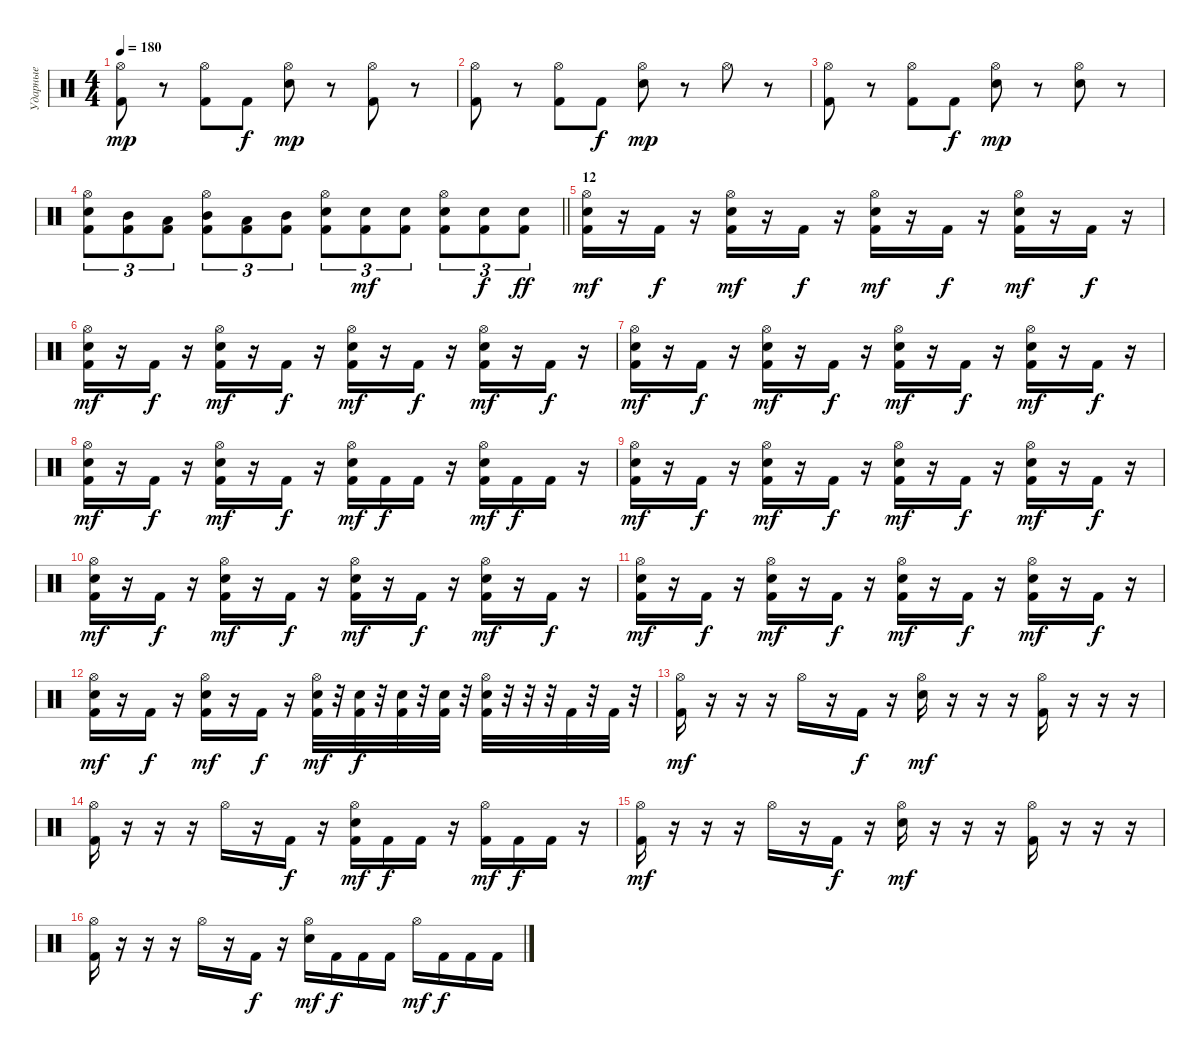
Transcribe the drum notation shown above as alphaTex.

\track ("Ударные" "Ударные") {instrument percussion}
\staff {score}
\articulation defaults
\ts (4 4)
\tempo 180
\clef neutral
\ks c
("Hi-Hat (open)" "Kick (hit) 2").8{dy mp} r.8 ("Hi-Hat (open)" "Kick (hit) 2").8 "Kick (hit) 2".8{dy f} ("Hi-Hat (open)" "Snare (hit) 2").8{dy mp} r.8 ("Hi-Hat (open)" "Kick (hit) 2").8 r.8 |
("Hi-Hat (open)" "Kick (hit) 2").8 r.8 ("Hi-Hat (open)" "Kick (hit) 2").8 "Kick (hit) 2".8{dy f} ("Hi-Hat (open)" "Snare (hit) 2").8{dy mp} r.8 "Hi-Hat (open)".8 r.8 |
("Hi-Hat (open)" "Kick (hit) 2").8 r.8 ("Hi-Hat (open)" "Kick (hit) 2").8 "Kick (hit) 2".8{dy f} ("Hi-Hat (open)" "Snare (hit) 2").8{dy mp} r.8 ("Hi-Hat (open)" "Snare (hit) 2").8 r.8 |
\barLineRight lightlight
("Snare (hit) 2" "Hi-Hat (open)" "Kick (hit) 2").8{tu (3 2)} ("Mid Tom (hit)" "Kick (hit) 2").8{tu (3 2)} ("Low Tom (hit)" "Kick (hit) 2").8{tu (3 2)} ("Hi-Hat (open)" "Mid Tom (hit)" "Kick (hit) 2").8{tu (3 2)} ("Low Tom (hit)" "Kick (hit) 2").8{tu (3 2)} ("Mid Tom (hit)" "Kick (hit) 2").8{tu (3 2)} ("Snare (hit) 2" "Hi-Hat (open)" "Kick (hit) 2").8{tu (3 2)} ("Snare (hit) 2" "Kick (hit) 2").8{tu (3 2) dy mf} ("Snare (hit) 2" "Kick (hit) 2").8{tu (3 2)} ("Hi-Hat (open)" "Snare (hit) 2" "Kick (hit) 2").8{tu (3 2)} ("Snare (hit) 2" "Kick (hit) 2").8{tu (3 2) dy f} ("Snare (hit) 2" "Kick (hit) 2").8{tu (3 2) dy ff} |
\section ("" "12")
("Hi-Hat (open)" "Snare (hit) 2" "Kick (hit) 2").16{dy mf} r.16 "Kick (hit) 2".16{dy f} r.16 ("Hi-Hat (open)" "Snare (hit) 2" "Kick (hit) 2").16{dy mf} r.16 "Kick (hit) 2".16{dy f} r.16 ("Hi-Hat (open)" "Snare (hit) 2" "Kick (hit) 2").16{dy mf} r.16 "Kick (hit) 2".16{dy f} r.16 ("Hi-Hat (open)" "Snare (hit) 2" "Kick (hit) 2").16{dy mf} r.16 "Kick (hit) 2".16{dy f} r.16 |
("Hi-Hat (open)" "Snare (hit) 2" "Kick (hit) 2").16{dy mf} r.16 "Kick (hit) 2".16{dy f} r.16 ("Hi-Hat (open)" "Snare (hit) 2" "Kick (hit) 2").16{dy mf} r.16 "Kick (hit) 2".16{dy f} r.16 ("Hi-Hat (open)" "Snare (hit) 2" "Kick (hit) 2").16{dy mf} r.16 "Kick (hit) 2".16{dy f} r.16 ("Hi-Hat (open)" "Snare (hit) 2" "Kick (hit) 2").16{dy mf} r.16 "Kick (hit) 2".16{dy f} r.16 |
("Hi-Hat (open)" "Snare (hit) 2" "Kick (hit) 2").16{dy mf} r.16 "Kick (hit) 2".16{dy f} r.16 ("Hi-Hat (open)" "Snare (hit) 2" "Kick (hit) 2").16{dy mf} r.16 "Kick (hit) 2".16{dy f} r.16 ("Hi-Hat (open)" "Snare (hit) 2" "Kick (hit) 2").16{dy mf} r.16 "Kick (hit) 2".16{dy f} r.16 ("Hi-Hat (open)" "Snare (hit) 2" "Kick (hit) 2").16{dy mf} r.16 "Kick (hit) 2".16{dy f} r.16 |
("Hi-Hat (open)" "Snare (hit) 2" "Kick (hit) 2").16{dy mf} r.16 "Kick (hit) 2".16{dy f} r.16 ("Hi-Hat (open)" "Snare (hit) 2" "Kick (hit) 2").16{dy mf} r.16 "Kick (hit) 2".16{dy f} r.16 ("Hi-Hat (open)" "Snare (hit) 2" "Kick (hit) 2").16{dy mf} "Kick (hit) 2".16{dy f} "Kick (hit) 2".16 r.16 ("Hi-Hat (open)" "Snare (hit) 2" "Kick (hit) 2").16{dy mf} "Kick (hit) 2".16{dy f} "Kick (hit) 2".16 r.16 |
("Hi-Hat (open)" "Snare (hit) 2" "Kick (hit) 2").16{dy mf} r.16 "Kick (hit) 2".16{dy f} r.16 ("Hi-Hat (open)" "Snare (hit) 2" "Kick (hit) 2").16{dy mf} r.16 "Kick (hit) 2".16{dy f} r.16 ("Hi-Hat (open)" "Snare (hit) 2" "Kick (hit) 2").16{dy mf} r.16 "Kick (hit) 2".16{dy f} r.16 ("Hi-Hat (open)" "Snare (hit) 2" "Kick (hit) 2").16{dy mf} r.16 "Kick (hit) 2".16{dy f} r.16 |
("Hi-Hat (open)" "Snare (hit) 2" "Kick (hit) 2").16{dy mf} r.16 "Kick (hit) 2".16{dy f} r.16 ("Hi-Hat (open)" "Snare (hit) 2" "Kick (hit) 2").16{dy mf} r.16 "Kick (hit) 2".16{dy f} r.16 ("Hi-Hat (open)" "Snare (hit) 2" "Kick (hit) 2").16{dy mf} r.16 "Kick (hit) 2".16{dy f} r.16 ("Hi-Hat (open)" "Snare (hit) 2" "Kick (hit) 2").16{dy mf} r.16 "Kick (hit) 2".16{dy f} r.16 |
("Hi-Hat (open)" "Snare (hit) 2" "Kick (hit) 2").16{dy mf} r.16 "Kick (hit) 2".16{dy f} r.16 ("Hi-Hat (open)" "Snare (hit) 2" "Kick (hit) 2").16{dy mf} r.16 "Kick (hit) 2".16{dy f} r.16 ("Hi-Hat (open)" "Snare (hit) 2" "Kick (hit) 2").16{dy mf} r.16 "Kick (hit) 2".16{dy f} r.16 ("Hi-Hat (open)" "Snare (hit) 2" "Kick (hit) 2").16{dy mf} r.16 "Kick (hit) 2".16{dy f} r.16 |
("Hi-Hat (open)" "Snare (hit) 2" "Kick (hit) 2").16{dy mf} r.16 "Kick (hit) 2".16{dy f} r.16 ("Hi-Hat (open)" "Snare (hit) 2" "Kick (hit) 2").16{dy mf} r.16 "Kick (hit) 2".16{dy f} r.16 ("Hi-Hat (open)" "Snare (hit) 2" "Kick (hit) 2").32{dy mf} r.32 ("Snare (hit) 2" "Kick (hit) 2").32{dy f} r.32 ("Snare (hit) 2" "Kick (hit) 2").32 r.32 ("Snare (hit) 2" "Kick (hit) 2").32 r.32 ("Hi-Hat (open)" "Snare (hit) 2" "Kick (hit) 2").32 r.32 r.32 r.32 "Kick (hit) 2".32 r.32 "Kick (hit) 2".32 r.32 |
("Hi-Hat (open)" "Kick (hit) 2").16{dy mf} r.16 r.16 r.16 "Hi-Hat (open)".16 r.16 "Kick (hit) 2".16{dy f} r.16 ("Hi-Hat (open)" "Snare (hit) 2").16{dy mf} r.16 r.16 r.16 ("Hi-Hat (open)" "Kick (hit) 2").16 r.16 r.16 r.16 |
("Hi-Hat (open)" "Kick (hit) 2").16 r.16 r.16 r.16 "Hi-Hat (open)".16 r.16 "Kick (hit) 2".16{dy f} r.16 ("Hi-Hat (open)" "Snare (hit) 2" "Kick (hit) 2").16{dy mf} "Kick (hit) 2".16{dy f} "Kick (hit) 2".16 r.16 ("Hi-Hat (open)" "Kick (hit) 2").16{dy mf} "Kick (hit) 2".16{dy f} "Kick (hit) 2".16 r.16 |
("Hi-Hat (open)" "Kick (hit) 2").16{dy mf} r.16 r.16 r.16 "Hi-Hat (open)".16 r.16 "Kick (hit) 2".16{dy f} r.16 ("Hi-Hat (open)" "Snare (hit) 2").16{dy mf} r.16 r.16 r.16 ("Hi-Hat (open)" "Kick (hit) 2").16 r.16 r.16 r.16 |
("Hi-Hat (open)" "Kick (hit) 2").16 r.16 r.16 r.16 "Hi-Hat (open)".16 r.16 "Kick (hit) 2".16{dy f} r.16 ("Hi-Hat (open)" "Snare (hit) 2").16{dy mf} "Kick (hit) 2".16{dy f} "Kick (hit) 2".16 "Kick (hit) 2".16 "Hi-Hat (open)".16{dy mf} "Kick (hit) 2".16{dy f} "Kick (hit) 2".16 "Kick (hit) 2".16
